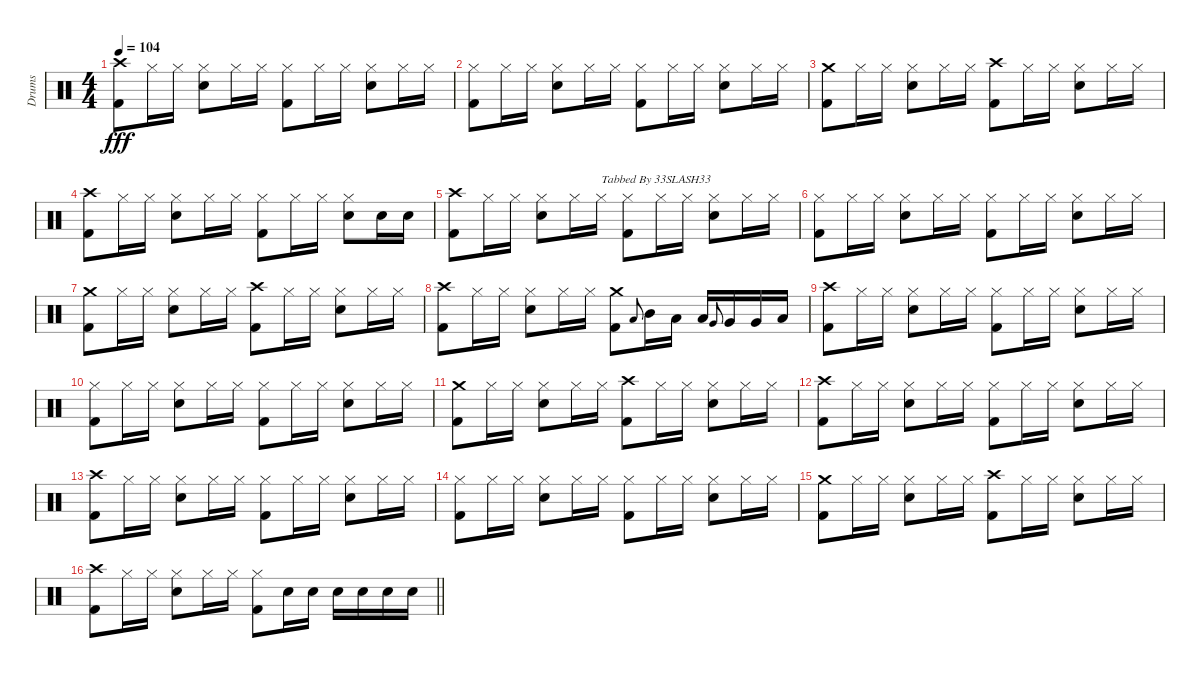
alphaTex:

\track ("Drums" "Drums") {instrument percussion}
\staff {score}
\articulation defaults
\ts (4 4)
\tempo 104
\clef neutral
\ks c
("Crash high (hit)" "Kick (hit) 2").8{dy fff} "Hi-Hat (closed)".16 "Hi-Hat (closed)".16 ("Hi-Hat (closed)" "Snare (hit) 2").8 "Hi-Hat (closed)".16 "Hi-Hat (closed)".16 ("Hi-Hat (closed)" "Kick (hit) 2").8 "Hi-Hat (closed)".16 "Hi-Hat (closed)".16 ("Hi-Hat (closed)" "Snare (hit) 2").8 "Hi-Hat (closed)".16 "Hi-Hat (closed)".16 |
("Hi-Hat (closed)" "Kick (hit) 2").8 "Hi-Hat (closed)".16 "Hi-Hat (closed)".16 ("Hi-Hat (closed)" "Snare (hit) 2").8 "Hi-Hat (closed)".16 "Hi-Hat (closed)".16 ("Hi-Hat (closed)" "Kick (hit) 2").8 "Hi-Hat (closed)".16 "Hi-Hat (closed)".16 ("Hi-Hat (closed)" "Snare (hit) 2").8 "Hi-Hat (closed)".16 "Hi-Hat (closed)".16 |
("Crash medium (hit)" "Kick (hit) 2").8 "Hi-Hat (closed)".16 "Hi-Hat (closed)".16 ("Hi-Hat (closed)" "Snare (hit) 2").8 "Hi-Hat (closed)".16 "Hi-Hat (closed)".16 ("Crash high (hit)" "Kick (hit) 2").8 "Hi-Hat (closed)".16 "Hi-Hat (closed)".16 ("Hi-Hat (closed)" "Snare (hit) 2").8 "Hi-Hat (closed)".16 "Hi-Hat (closed)".16 |
("Crash high (hit)" "Kick (hit) 2").8 "Hi-Hat (closed)".16 "Hi-Hat (closed)".16 ("Hi-Hat (closed)" "Snare (hit) 2").8 "Hi-Hat (closed)".16 "Hi-Hat (closed)".16 ("Hi-Hat (closed)" "Kick (hit) 2").8 "Hi-Hat (closed)".16 "Hi-Hat (closed)".16 ("Hi-Hat (closed)" "Snare (hit) 2").8 "Snare (hit) 2".16 "Snare (hit) 2".16 |
("Crash high (hit)" "Kick (hit) 2").8 "Hi-Hat (closed)".16 "Hi-Hat (closed)".16 ("Hi-Hat (closed)" "Snare (hit) 2").8 "Hi-Hat (closed)".16 "Hi-Hat (closed)".16{txt "Tabbed By 33SLASH33"} ("Hi-Hat (closed)" "Kick (hit) 2").8 "Hi-Hat (closed)".16 "Hi-Hat (closed)".16 ("Hi-Hat (closed)" "Snare (hit) 2").8 "Hi-Hat (closed)".16 "Hi-Hat (closed)".16 |
("Hi-Hat (closed)" "Kick (hit) 2").8 "Hi-Hat (closed)".16 "Hi-Hat (closed)".16 ("Hi-Hat (closed)" "Snare (hit) 2").8 "Hi-Hat (closed)".16 "Hi-Hat (closed)".16 ("Hi-Hat (closed)" "Kick (hit) 2").8 "Hi-Hat (closed)".16 "Hi-Hat (closed)".16 ("Hi-Hat (closed)" "Snare (hit) 2").8 "Hi-Hat (closed)".16 "Hi-Hat (closed)".16 |
("Crash medium (hit)" "Kick (hit) 2").8 "Hi-Hat (closed)".16 "Hi-Hat (closed)".16 ("Hi-Hat (closed)" "Snare (hit) 2").8 "Hi-Hat (closed)".16 "Hi-Hat (closed)".16 ("Crash high (hit)" "Kick (hit) 2").8 "Hi-Hat (closed)".16 "Hi-Hat (closed)".16 ("Hi-Hat (closed)" "Snare (hit) 2").8 "Hi-Hat (closed)".16 "Hi-Hat (closed)".16 |
("Crash high (hit)" "Kick (hit) 2").8 "Hi-Hat (closed)".16 "Hi-Hat (closed)".16 ("Hi-Hat (closed)" "Snare (hit) 2").8 "Hi-Hat (closed)".16 "Hi-Hat (closed)".16 ("Crash medium (hit)" "Kick (hit) 2").8 "Low Tom (hit)".8{gr onbeat} "Mid Tom (hit)".16 "Low Tom (hit)".16 "Low Tom (hit)".16 "Very Low Tom (hit)".8{gr onbeat} "Very Low Tom (hit)".16 "Very Low Tom (hit)".16 "Low Floor Tom (hit)".16 |
("Crash high (hit)" "Kick (hit) 2").8 "Hi-Hat (closed)".16 "Hi-Hat (closed)".16 ("Hi-Hat (closed)" "Snare (hit) 2").8 "Hi-Hat (closed)".16 "Hi-Hat (closed)".16 ("Hi-Hat (closed)" "Kick (hit) 2").8 "Hi-Hat (closed)".16 "Hi-Hat (closed)".16 ("Hi-Hat (closed)" "Snare (hit) 2").8 "Hi-Hat (closed)".16 "Hi-Hat (closed)".16 |
("Hi-Hat (closed)" "Kick (hit) 2").8 "Hi-Hat (closed)".16 "Hi-Hat (closed)".16 ("Hi-Hat (closed)" "Snare (hit) 2").8 "Hi-Hat (closed)".16 "Hi-Hat (closed)".16 ("Hi-Hat (closed)" "Kick (hit) 2").8 "Hi-Hat (closed)".16 "Hi-Hat (closed)".16 ("Hi-Hat (closed)" "Snare (hit) 2").8 "Hi-Hat (closed)".16 "Hi-Hat (closed)".16 |
("Crash medium (hit)" "Kick (hit) 2").8 "Hi-Hat (closed)".16 "Hi-Hat (closed)".16 ("Hi-Hat (closed)" "Snare (hit) 2").8 "Hi-Hat (closed)".16 "Hi-Hat (closed)".16 ("Crash high (hit)" "Kick (hit) 2").8 "Hi-Hat (closed)".16 "Hi-Hat (closed)".16 ("Hi-Hat (closed)" "Snare (hit) 2").8 "Hi-Hat (closed)".16 "Hi-Hat (closed)".16 |
("Crash high (hit)" "Kick (hit) 2").8 "Hi-Hat (closed)".16 "Hi-Hat (closed)".16 ("Hi-Hat (closed)" "Snare (hit) 2").8 "Hi-Hat (closed)".16 "Hi-Hat (closed)".16 ("Hi-Hat (closed)" "Kick (hit) 2").8 "Hi-Hat (closed)".16 "Hi-Hat (closed)".16 ("Hi-Hat (closed)" "Snare (hit) 2").8 "Hi-Hat (closed)".16 "Hi-Hat (closed)".16 |
("Crash high (hit)" "Kick (hit) 2").8 "Hi-Hat (closed)".16 "Hi-Hat (closed)".16 ("Hi-Hat (closed)" "Snare (hit) 2").8 "Hi-Hat (closed)".16 "Hi-Hat (closed)".16 ("Hi-Hat (closed)" "Kick (hit) 2").8 "Hi-Hat (closed)".16 "Hi-Hat (closed)".16 ("Hi-Hat (closed)" "Snare (hit) 2").8 "Hi-Hat (closed)".16 "Hi-Hat (closed)".16 |
("Hi-Hat (closed)" "Kick (hit) 2").8 "Hi-Hat (closed)".16 "Hi-Hat (closed)".16 ("Hi-Hat (closed)" "Snare (hit) 2").8 "Hi-Hat (closed)".16 "Hi-Hat (closed)".16 ("Hi-Hat (closed)" "Kick (hit) 2").8 "Hi-Hat (closed)".16 "Hi-Hat (closed)".16 ("Hi-Hat (closed)" "Snare (hit) 2").8 "Hi-Hat (closed)".16 "Hi-Hat (closed)".16 |
("Crash medium (hit)" "Kick (hit) 2").8 "Hi-Hat (closed)".16 "Hi-Hat (closed)".16 ("Hi-Hat (closed)" "Snare (hit) 2").8 "Hi-Hat (closed)".16 "Hi-Hat (closed)".16 ("Crash high (hit)" "Kick (hit) 2").8 "Hi-Hat (closed)".16 "Hi-Hat (closed)".16 ("Hi-Hat (closed)" "Snare (hit) 2").8 "Hi-Hat (closed)".16 "Hi-Hat (closed)".16 |
\barLineRight lightlight
("Crash high (hit)" "Kick (hit) 2").8 "Hi-Hat (closed)".16 "Hi-Hat (closed)".16 ("Hi-Hat (closed)" "Snare (hit) 2").8 "Hi-Hat (closed)".16 "Hi-Hat (closed)".16 ("Hi-Hat (closed)" "Kick (hit) 2").8 "Snare (hit) 2".16 "Snare (hit) 2".16 "Snare (hit) 2".16 "Snare (hit) 2".16 "Snare (hit) 2".16 "Snare (hit) 2".16
